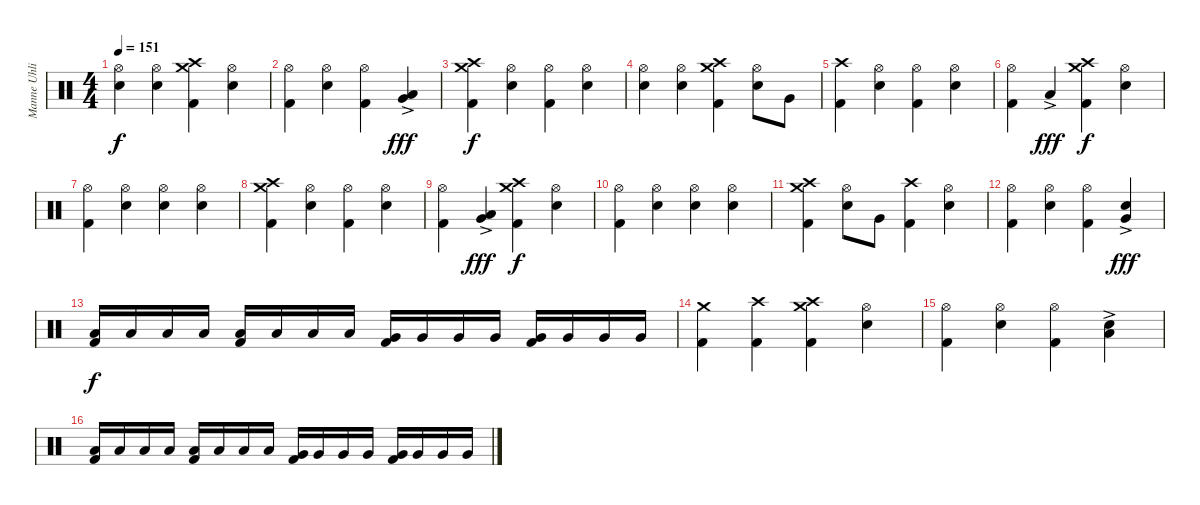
\track ("Manne Uhlig" "Manne Uhli") {instrument percussion}
\staff {score}
\articulation defaults
\ts (4 4)
\tempo 151
\clef neutral
\ks c
("Hi-Hat (open)" "Snare (hit) 2").4{dy f} ("Hi-Hat (open)" "Snare (hit) 2").4 ("Crash high (hit)" "Crash medium (hit)" "Kick (hit) 2").4 ("Hi-Hat (open)" "Snare (hit) 2").4 |
("Hi-Hat (open)" "Kick (hit) 2").4 ("Hi-Hat (open)" "Snare (hit) 2").4 ("Hi-Hat (open)" "Kick (hit) 2").4 ("Very Low Tom (hit)"{ac} "Low Floor Tom (hit)").4{dy fff} |
("Crash high (hit)" "Crash medium (hit)" "Kick (hit) 2").4{dy f} ("Hi-Hat (open)" "Snare (hit) 2").4 ("Hi-Hat (open)" "Kick (hit) 2").4 ("Hi-Hat (open)" "Snare (hit) 2").4 |
("Hi-Hat (open)" "Snare (hit) 2").4 ("Hi-Hat (open)" "Snare (hit) 2").4 ("Crash high (hit)" "Crash medium (hit)" "Kick (hit) 2").4 ("Hi-Hat (open)" "Snare (hit) 2").8 "Very Low Tom (hit)".8 |
("Crash high (hit)" "Kick (hit) 2").4 ("Hi-Hat (open)" "Snare (hit) 2").4 ("Hi-Hat (open)" "Kick (hit) 2").4 ("Hi-Hat (open)" "Snare (hit) 2").4 |
("Hi-Hat (open)" "Kick (hit) 2").4 "Low Tom (hit)"{ac}.4{dy fff} ("Crash high (hit)" "Crash medium (hit)" "Kick (hit) 2").4{dy f} ("Hi-Hat (open)" "Snare (hit) 2").4 |
("Hi-Hat (open)" "Kick (hit) 2").4 ("Hi-Hat (open)" "Snare (hit) 2").4 ("Hi-Hat (open)" "Snare (hit) 2").4 ("Hi-Hat (open)" "Snare (hit) 2").4 |
("Crash high (hit)" "Crash medium (hit)" "Kick (hit) 2").4 ("Hi-Hat (open)" "Snare (hit) 2").4 ("Hi-Hat (open)" "Kick (hit) 2").4 ("Hi-Hat (open)" "Snare (hit) 2").4 |
("Hi-Hat (open)" "Kick (hit) 2").4 ("Very Low Tom (hit)"{ac} "Low Floor Tom (hit)").4{dy fff} ("Crash high (hit)" "Crash medium (hit)" "Kick (hit) 2").4{dy f} ("Hi-Hat (open)" "Snare (hit) 2").4 |
("Hi-Hat (open)" "Kick (hit) 2").4 ("Hi-Hat (open)" "Snare (hit) 2").4 ("Hi-Hat (open)" "Snare (hit) 2").4 ("Hi-Hat (open)" "Snare (hit) 2").4 |
("Crash high (hit)" "Crash medium (hit)" "Kick (hit) 2").4 ("Hi-Hat (open)" "Snare (hit) 2").8 "Very Low Tom (hit)".8 ("Crash high (hit)" "Kick (hit) 2").4 ("Hi-Hat (open)" "Snare (hit) 2").4 |
("Hi-Hat (open)" "Kick (hit) 2").4 ("Hi-Hat (open)" "Snare (hit) 2").4 ("Hi-Hat (open)" "Kick (hit) 2").4 ("Snare (hit) 2" "Very Low Tom (hit)"{ac}).4{dy fff} |
("Low Tom (hit)" "Kick (hit) 2").16{dy f} "Low Tom (hit)".16 "Low Tom (hit)".16 "Low Tom (hit)".16 ("Low Tom (hit)" "Kick (hit) 2").16 "Low Tom (hit)".16 "Low Tom (hit)".16 "Low Tom (hit)".16 ("Very Low Tom (hit)" "Kick (hit) 2").16 "Very Low Tom (hit)".16 "Very Low Tom (hit)".16 "Very Low Tom (hit)".16 ("Very Low Tom (hit)" "Kick (hit) 2").16 "Very Low Tom (hit)".16 "Very Low Tom (hit)".16 "Very Low Tom (hit)".16 |
("Crash medium (hit)" "Kick (hit) 2").4 ("Crash high (hit)" "Kick (hit) 2").4 ("Crash high (hit)" "Crash medium (hit)" "Kick (hit) 2").4 ("Hi-Hat (open)" "Snare (hit) 2").4 |
("Hi-Hat (open)" "Kick (hit) 2").4 ("Hi-Hat (open)" "Snare (hit) 2").4 ("Hi-Hat (open)" "Kick (hit) 2").4 ("Snare (hit) 2" "Low Floor Tom (hit)"{ac}).4 |
("Low Tom (hit)" "Kick (hit) 2").16 "Low Tom (hit)".16 "Low Tom (hit)".16 "Low Tom (hit)".16 ("Low Tom (hit)" "Kick (hit) 2").16 "Low Tom (hit)".16 "Low Tom (hit)".16 "Low Tom (hit)".16 ("Very Low Tom (hit)" "Kick (hit) 2").16 "Very Low Tom (hit)".16 "Very Low Tom (hit)".16 "Very Low Tom (hit)".16 ("Very Low Tom (hit)" "Kick (hit) 2").16 "Very Low Tom (hit)".16 "Very Low Tom (hit)".16 "Very Low Tom (hit)".16
